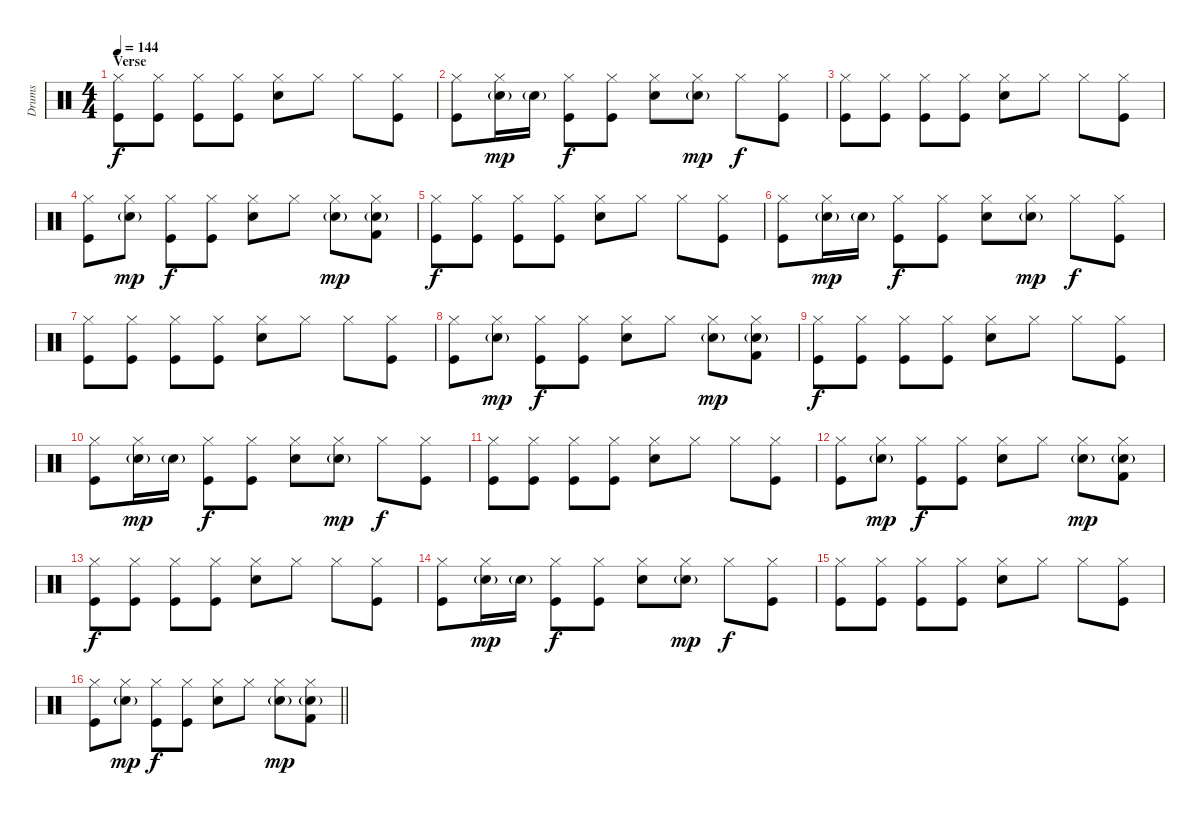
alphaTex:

\track ("Drums" "Drums") {instrument percussion}
\staff {score}
\articulation defaults
\ts (4 4)
\section ("" "Verse")
\tempo 144
\clef neutral
\ks c
("Hi-Hat (closed)" "Kick (hit)").8{dy f} ("Hi-Hat (closed)" "Kick (hit)").8 ("Hi-Hat (closed)" "Kick (hit)").8 ("Hi-Hat (closed)" "Kick (hit)").8 ("Hi-Hat (closed)" "Snare (hit) 2").8 "Hi-Hat (closed)".8 "Hi-Hat (closed)".8 ("Hi-Hat (closed)" "Kick (hit)").8 |
("Hi-Hat (closed)" "Kick (hit)").8 ("Hi-Hat (closed)" "Electric Snare (hit)"{g}).16{dy mp} "Electric Snare (hit)"{g}.16 ("Hi-Hat (closed)" "Kick (hit)").8{dy f} ("Hi-Hat (closed)" "Kick (hit)").8 ("Hi-Hat (closed)" "Snare (hit) 2").8 ("Hi-Hat (closed)" "Electric Snare (hit)"{g}).8{dy mp} "Hi-Hat (closed)".8{dy f} ("Hi-Hat (closed)" "Kick (hit)").8 |
("Hi-Hat (closed)" "Kick (hit)").8 ("Hi-Hat (closed)" "Kick (hit)").8 ("Hi-Hat (closed)" "Kick (hit)").8 ("Hi-Hat (closed)" "Kick (hit)").8 ("Hi-Hat (closed)" "Snare (hit) 2").8 "Hi-Hat (closed)".8 "Hi-Hat (closed)".8 ("Hi-Hat (closed)" "Kick (hit)").8 |
("Hi-Hat (closed)" "Kick (hit)").8 ("Hi-Hat (closed)" "Electric Snare (hit)"{g}).8{dy mp} ("Hi-Hat (closed)" "Kick (hit)").8{dy f} ("Hi-Hat (closed)" "Kick (hit)").8 ("Hi-Hat (closed)" "Snare (hit) 2").8 "Hi-Hat (closed)".8 ("Hi-Hat (closed)" "Electric Snare (hit)"{g}).8{dy mp} ("Hi-Hat (closed)" "Electric Snare (hit)"{g} "Kick (hit) 2").8 |
("Hi-Hat (closed)" "Kick (hit)").8{dy f} ("Hi-Hat (closed)" "Kick (hit)").8 ("Hi-Hat (closed)" "Kick (hit)").8 ("Hi-Hat (closed)" "Kick (hit)").8 ("Hi-Hat (closed)" "Snare (hit) 2").8 "Hi-Hat (closed)".8 "Hi-Hat (closed)".8 ("Hi-Hat (closed)" "Kick (hit)").8 |
("Hi-Hat (closed)" "Kick (hit)").8 ("Hi-Hat (closed)" "Electric Snare (hit)"{g}).16{dy mp} "Electric Snare (hit)"{g}.16 ("Hi-Hat (closed)" "Kick (hit)").8{dy f} ("Hi-Hat (closed)" "Kick (hit)").8 ("Hi-Hat (closed)" "Snare (hit) 2").8 ("Hi-Hat (closed)" "Electric Snare (hit)"{g}).8{dy mp} "Hi-Hat (closed)".8{dy f} ("Hi-Hat (closed)" "Kick (hit)").8 |
("Hi-Hat (closed)" "Kick (hit)").8 ("Hi-Hat (closed)" "Kick (hit)").8 ("Hi-Hat (closed)" "Kick (hit)").8 ("Hi-Hat (closed)" "Kick (hit)").8 ("Hi-Hat (closed)" "Snare (hit) 2").8 "Hi-Hat (closed)".8 "Hi-Hat (closed)".8 ("Hi-Hat (closed)" "Kick (hit)").8 |
("Hi-Hat (closed)" "Kick (hit)").8 ("Hi-Hat (closed)" "Electric Snare (hit)"{g}).8{dy mp} ("Hi-Hat (closed)" "Kick (hit)").8{dy f} ("Hi-Hat (closed)" "Kick (hit)").8 ("Hi-Hat (closed)" "Snare (hit) 2").8 "Hi-Hat (closed)".8 ("Hi-Hat (closed)" "Electric Snare (hit)"{g}).8{dy mp} ("Hi-Hat (closed)" "Electric Snare (hit)"{g} "Kick (hit) 2").8 |
("Hi-Hat (closed)" "Kick (hit)").8{dy f} ("Hi-Hat (closed)" "Kick (hit)").8 ("Hi-Hat (closed)" "Kick (hit)").8 ("Hi-Hat (closed)" "Kick (hit)").8 ("Hi-Hat (closed)" "Snare (hit) 2").8 "Hi-Hat (closed)".8 "Hi-Hat (closed)".8 ("Hi-Hat (closed)" "Kick (hit)").8 |
("Hi-Hat (closed)" "Kick (hit)").8 ("Hi-Hat (closed)" "Electric Snare (hit)"{g}).16{dy mp} "Electric Snare (hit)"{g}.16 ("Hi-Hat (closed)" "Kick (hit)").8{dy f} ("Hi-Hat (closed)" "Kick (hit)").8 ("Hi-Hat (closed)" "Snare (hit) 2").8 ("Hi-Hat (closed)" "Electric Snare (hit)"{g}).8{dy mp} "Hi-Hat (closed)".8{dy f} ("Hi-Hat (closed)" "Kick (hit)").8 |
("Hi-Hat (closed)" "Kick (hit)").8 ("Hi-Hat (closed)" "Kick (hit)").8 ("Hi-Hat (closed)" "Kick (hit)").8 ("Hi-Hat (closed)" "Kick (hit)").8 ("Hi-Hat (closed)" "Snare (hit) 2").8 "Hi-Hat (closed)".8 "Hi-Hat (closed)".8 ("Hi-Hat (closed)" "Kick (hit)").8 |
("Hi-Hat (closed)" "Kick (hit)").8 ("Hi-Hat (closed)" "Electric Snare (hit)"{g}).8{dy mp} ("Hi-Hat (closed)" "Kick (hit)").8{dy f} ("Hi-Hat (closed)" "Kick (hit)").8 ("Hi-Hat (closed)" "Snare (hit) 2").8 "Hi-Hat (closed)".8 ("Hi-Hat (closed)" "Electric Snare (hit)"{g}).8{dy mp} ("Hi-Hat (closed)" "Electric Snare (hit)"{g} "Kick (hit) 2").8 |
("Hi-Hat (closed)" "Kick (hit)").8{dy f} ("Hi-Hat (closed)" "Kick (hit)").8 ("Hi-Hat (closed)" "Kick (hit)").8 ("Hi-Hat (closed)" "Kick (hit)").8 ("Hi-Hat (closed)" "Snare (hit) 2").8 "Hi-Hat (closed)".8 "Hi-Hat (closed)".8 ("Hi-Hat (closed)" "Kick (hit)").8 |
("Hi-Hat (closed)" "Kick (hit)").8 ("Hi-Hat (closed)" "Electric Snare (hit)"{g}).16{dy mp} "Electric Snare (hit)"{g}.16 ("Hi-Hat (closed)" "Kick (hit)").8{dy f} ("Hi-Hat (closed)" "Kick (hit)").8 ("Hi-Hat (closed)" "Snare (hit) 2").8 ("Hi-Hat (closed)" "Electric Snare (hit)"{g}).8{dy mp} "Hi-Hat (closed)".8{dy f} ("Hi-Hat (closed)" "Kick (hit)").8 |
("Hi-Hat (closed)" "Kick (hit)").8 ("Hi-Hat (closed)" "Kick (hit)").8 ("Hi-Hat (closed)" "Kick (hit)").8 ("Hi-Hat (closed)" "Kick (hit)").8 ("Hi-Hat (closed)" "Snare (hit) 2").8 "Hi-Hat (closed)".8 "Hi-Hat (closed)".8 ("Hi-Hat (closed)" "Kick (hit)").8 |
\barLineRight lightlight
("Hi-Hat (closed)" "Kick (hit)").8 ("Hi-Hat (closed)" "Electric Snare (hit)"{g}).8{dy mp} ("Hi-Hat (closed)" "Kick (hit)").8{dy f} ("Hi-Hat (closed)" "Kick (hit)").8 ("Hi-Hat (closed)" "Snare (hit) 2").8 "Hi-Hat (closed)".8 ("Hi-Hat (closed)" "Electric Snare (hit)"{g}).8{dy mp} ("Hi-Hat (closed)" "Electric Snare (hit)"{g} "Kick (hit) 2").8
